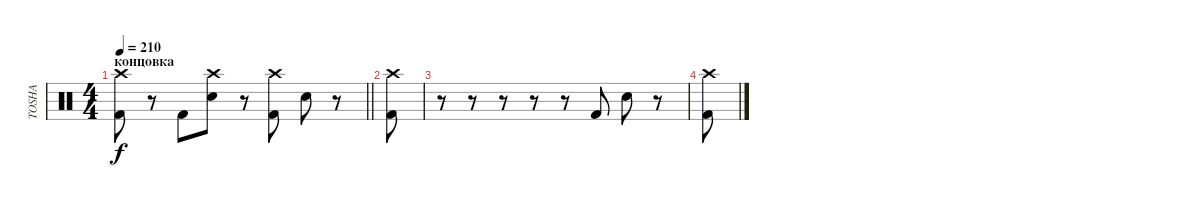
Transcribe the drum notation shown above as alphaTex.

\track ("TOSHA" "TOSHA") {instrument percussion}
\staff {score}
\articulation defaults
\ts (4 4)
\section ("" "концовка")
\tempo 210
\clef neutral
\barLineRight lightlight
\ks c
("Kick (hit) 2" "Crash high (hit)").8{dy f} r.8 "Kick (hit) 2".8 ("Electric Snare (hit)" "Crash high (hit)").8 r.8 ("Kick (hit) 2" "Crash high (hit)").8 "Electric Snare (hit)".8 r.8 |
("Kick (hit) 2" "Crash high (hit)").8 |
r.8 r.8 r.8 r.8 r.8 "Kick (hit) 2".8 "Electric Snare (hit)".8 r.8 |
("Crash high (hit)" "Kick (hit) 2").8
